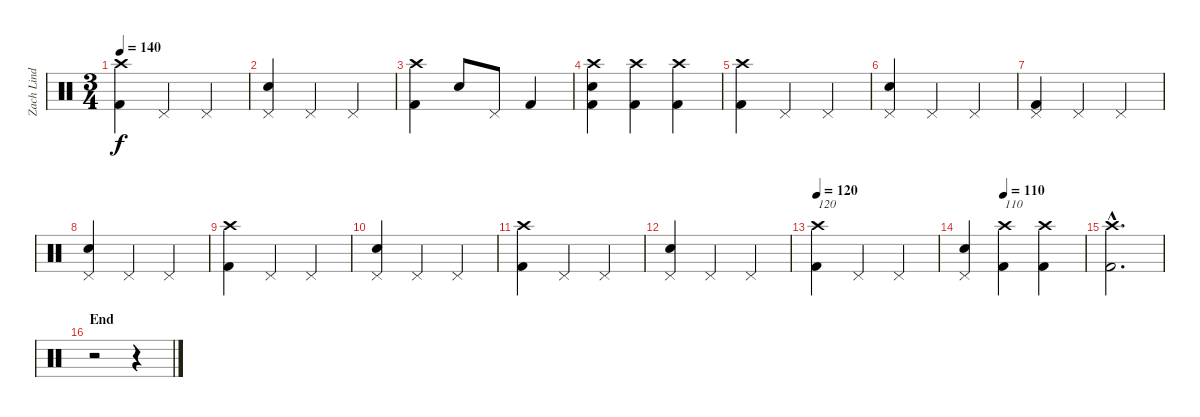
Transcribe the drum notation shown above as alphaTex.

\track ("Zach Lind - Drums" "Zach Lind ") {instrument percussion}
\staff {score}
\articulation defaults
\ts (3 4)
\tempo 140
\clef neutral
\ks c
("Crash high (hit)" "Kick (hit) 2").4{dy f} "Pedal Hi-Hat (hit)".4 "Pedal Hi-Hat (hit)".4 |
("Pedal Hi-Hat (hit)" "Electric Snare (hit)").4 "Pedal Hi-Hat (hit)".4 "Pedal Hi-Hat (hit)".4 |
("Crash high (hit)" "Kick (hit) 2").4 "Electric Snare (hit)".8 "Pedal Hi-Hat (hit)".8 "Kick (hit) 2".4 |
("Crash high (hit)" "Electric Snare (hit)" "Kick (hit) 2").4 ("Crash high (hit)" "Kick (hit) 2").4 ("Crash high (hit)" "Kick (hit) 2").4 |
("Crash high (hit)" "Kick (hit) 2").4 "Pedal Hi-Hat (hit)".4 "Pedal Hi-Hat (hit)".4 |
("Pedal Hi-Hat (hit)" "Electric Snare (hit)").4 "Pedal Hi-Hat (hit)".4 "Pedal Hi-Hat (hit)".4 |
("Pedal Hi-Hat (hit)" "Kick (hit) 2").4 "Pedal Hi-Hat (hit)".4 "Pedal Hi-Hat (hit)".4 |
("Pedal Hi-Hat (hit)" "Electric Snare (hit)").4 "Pedal Hi-Hat (hit)".4 "Pedal Hi-Hat (hit)".4 |
("Crash high (hit)" "Kick (hit) 2").4 "Pedal Hi-Hat (hit)".4 "Pedal Hi-Hat (hit)".4 |
("Pedal Hi-Hat (hit)" "Electric Snare (hit)").4 "Pedal Hi-Hat (hit)".4 "Pedal Hi-Hat (hit)".4 |
("Crash high (hit)" "Kick (hit) 2").4 "Pedal Hi-Hat (hit)".4 "Pedal Hi-Hat (hit)".4 |
("Pedal Hi-Hat (hit)" "Electric Snare (hit)").4 "Pedal Hi-Hat (hit)".4 "Pedal Hi-Hat (hit)".4 |
\tempo 120
("Crash high (hit)" "Kick (hit) 2").4{txt "120"} "Pedal Hi-Hat (hit)".4 "Pedal Hi-Hat (hit)".4 |
\tempo (110 0.3333333333333333)
("Pedal Hi-Hat (hit)" "Electric Snare (hit)").4 ("Crash high (hit)" "Kick (hit) 2").4{txt "110"} ("Crash high (hit)" "Kick (hit) 2").4 |
("Crash high (hit)"{hac} "Kick (hit) 2"{hac}).2{d} |
\section ("" "End")
r.2 r.4
